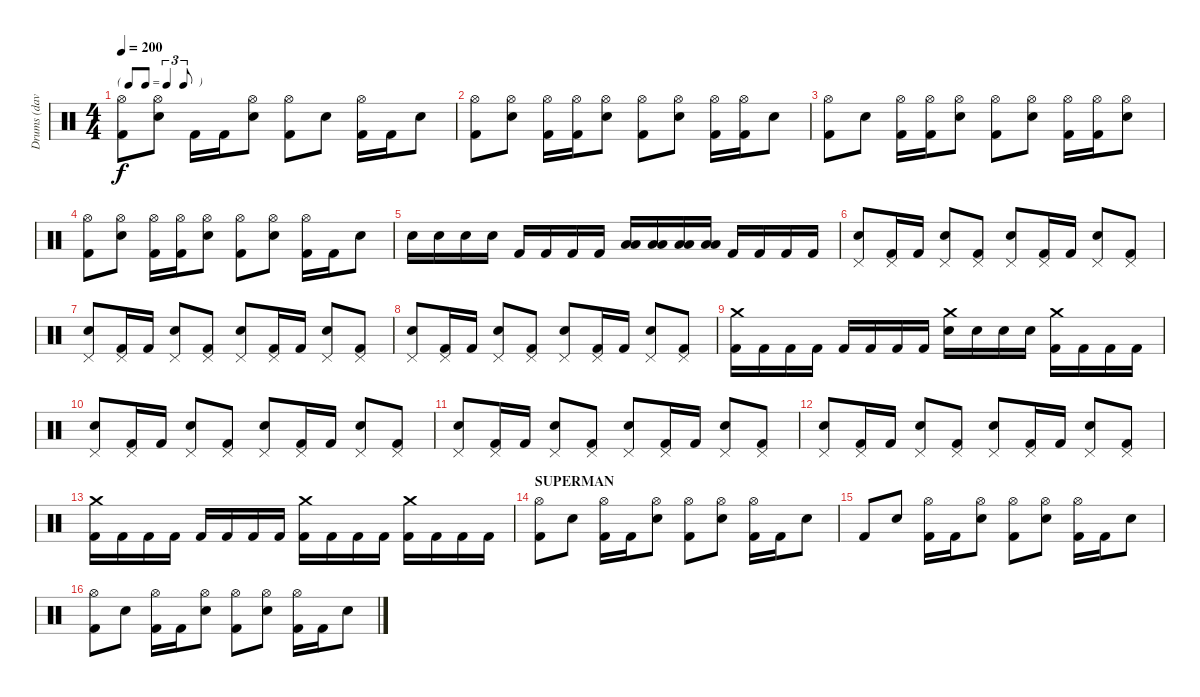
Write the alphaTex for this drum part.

\track ("Drums (dave)" "Drums (dav") {instrument percussion}
\staff {score}
\articulation defaults
\ts (4 4)
\tf triplet8th
\tempo 200
\clef neutral
\ks c
("Hi-Hat (open)" "Kick (hit) 2").8{dy f} ("Hi-Hat (open)" "Snare (hit) 2").8 "Kick (hit) 2".16 "Kick (hit) 2".16 ("Hi-Hat (open)" "Snare (hit) 2").8 ("Hi-Hat (open)" "Kick (hit) 2").8 "Snare (hit) 2".8 ("Hi-Hat (open)" "Kick (hit) 2").16 "Kick (hit) 2".16 "Snare (hit) 2".8 |
("Hi-Hat (open)" "Kick (hit) 2").8 ("Hi-Hat (open)" "Snare (hit) 2").8 ("Hi-Hat (open)" "Kick (hit) 2").16 ("Hi-Hat (open)" "Kick (hit) 2").16 ("Hi-Hat (open)" "Snare (hit) 2").8 ("Hi-Hat (open)" "Kick (hit) 2").8 ("Hi-Hat (open)" "Snare (hit) 2").8 ("Hi-Hat (open)" "Kick (hit) 2").16 ("Hi-Hat (open)" "Kick (hit) 2").16 "Snare (hit) 2".8 |
("Hi-Hat (open)" "Kick (hit) 2").8 "Snare (hit) 2".8 ("Hi-Hat (open)" "Kick (hit) 2").16 ("Hi-Hat (open)" "Kick (hit) 2").16 ("Hi-Hat (open)" "Snare (hit) 2").8 ("Hi-Hat (open)" "Kick (hit) 2").8 ("Hi-Hat (open)" "Snare (hit) 2").8 ("Hi-Hat (open)" "Kick (hit) 2").16 ("Hi-Hat (open)" "Kick (hit) 2").16 ("Hi-Hat (open)" "Snare (hit) 2").8 |
("Hi-Hat (open)" "Kick (hit) 2").8 ("Hi-Hat (open)" "Snare (hit) 2").8 ("Hi-Hat (open)" "Kick (hit) 2").16 ("Hi-Hat (open)" "Kick (hit) 2").16 ("Hi-Hat (open)" "Snare (hit) 2").8 ("Hi-Hat (open)" "Kick (hit) 2").8 ("Hi-Hat (open)" "Snare (hit) 2").8 ("Hi-Hat (open)" "Kick (hit) 2").16 "Kick (hit) 2".16 "Snare (hit) 2".8 |
"Snare (hit) 2".16 "Snare (hit) 2".16 "Snare (hit) 2".16 "Snare (hit) 2".16 "Kick (hit) 2".16 "Kick (hit) 2".16 "Kick (hit) 2".16 "Kick (hit) 2".16 ("Low Floor Tom (hit)" "Low Floor Tom (hit)").16 ("Low Floor Tom (hit)" "Low Floor Tom (hit)").16 ("Low Floor Tom (hit)" "Low Floor Tom (hit)").16 ("Low Floor Tom (hit)" "Low Floor Tom (hit)").16 "Kick (hit) 2".16 "Kick (hit) 2".16 "Kick (hit) 2".16 "Kick (hit) 2".16 |
("Pedal Hi-Hat (hit)" "Snare (hit) 2").8 ("Pedal Hi-Hat (hit)" "Kick (hit) 2").16 "Kick (hit) 2".16 ("Pedal Hi-Hat (hit)" "Snare (hit) 2").8 ("Pedal Hi-Hat (hit)" "Kick (hit) 2").8 ("Pedal Hi-Hat (hit)" "Snare (hit) 2").8 ("Pedal Hi-Hat (hit)" "Kick (hit) 2").16 "Kick (hit) 2".16 ("Pedal Hi-Hat (hit)" "Snare (hit) 2").8 ("Pedal Hi-Hat (hit)" "Kick (hit) 2").8 |
("Pedal Hi-Hat (hit)" "Snare (hit) 2").8 ("Pedal Hi-Hat (hit)" "Kick (hit) 2").16 "Kick (hit) 2".16 ("Pedal Hi-Hat (hit)" "Snare (hit) 2").8 ("Pedal Hi-Hat (hit)" "Kick (hit) 2").8 ("Pedal Hi-Hat (hit)" "Snare (hit) 2").8 ("Pedal Hi-Hat (hit)" "Kick (hit) 2").16 "Kick (hit) 2".16 ("Pedal Hi-Hat (hit)" "Snare (hit) 2").8 ("Pedal Hi-Hat (hit)" "Kick (hit) 2").8 |
("Pedal Hi-Hat (hit)" "Snare (hit) 2").8 ("Pedal Hi-Hat (hit)" "Kick (hit) 2").16 "Kick (hit) 2".16 ("Pedal Hi-Hat (hit)" "Snare (hit) 2").8 ("Pedal Hi-Hat (hit)" "Kick (hit) 2").8 ("Pedal Hi-Hat (hit)" "Snare (hit) 2").8 ("Pedal Hi-Hat (hit)" "Kick (hit) 2").16 "Kick (hit) 2".16 ("Pedal Hi-Hat (hit)" "Snare (hit) 2").8 ("Pedal Hi-Hat (hit)" "Kick (hit) 2").8 |
("Crash medium (hit)" "Kick (hit) 2").16 "Kick (hit) 2".16 "Kick (hit) 2".16 "Kick (hit) 2".16 "Kick (hit) 2".16 "Kick (hit) 2".16 "Kick (hit) 2".16 "Kick (hit) 2".16 ("Crash medium (hit)" "Snare (hit) 2").16 "Snare (hit) 2".16 "Snare (hit) 2".16 "Snare (hit) 2".16 ("Crash medium (hit)" "Kick (hit) 2").16 "Kick (hit) 2".16 "Kick (hit) 2".16 "Kick (hit) 2".16 |
("Pedal Hi-Hat (hit)" "Snare (hit) 2").8 ("Pedal Hi-Hat (hit)" "Kick (hit) 2").16 "Kick (hit) 2".16 ("Pedal Hi-Hat (hit)" "Snare (hit) 2").8 ("Pedal Hi-Hat (hit)" "Kick (hit) 2").8 ("Pedal Hi-Hat (hit)" "Snare (hit) 2").8 ("Pedal Hi-Hat (hit)" "Kick (hit) 2").16 "Kick (hit) 2".16 ("Pedal Hi-Hat (hit)" "Snare (hit) 2").8 ("Pedal Hi-Hat (hit)" "Kick (hit) 2").8 |
("Pedal Hi-Hat (hit)" "Snare (hit) 2").8 ("Pedal Hi-Hat (hit)" "Kick (hit) 2").16 "Kick (hit) 2".16 ("Pedal Hi-Hat (hit)" "Snare (hit) 2").8 ("Pedal Hi-Hat (hit)" "Kick (hit) 2").8 ("Pedal Hi-Hat (hit)" "Snare (hit) 2").8 ("Pedal Hi-Hat (hit)" "Kick (hit) 2").16 "Kick (hit) 2".16 ("Pedal Hi-Hat (hit)" "Snare (hit) 2").8 ("Pedal Hi-Hat (hit)" "Kick (hit) 2").8 |
("Pedal Hi-Hat (hit)" "Snare (hit) 2").8 ("Pedal Hi-Hat (hit)" "Kick (hit) 2").16 "Kick (hit) 2".16 ("Pedal Hi-Hat (hit)" "Snare (hit) 2").8 ("Pedal Hi-Hat (hit)" "Kick (hit) 2").8 ("Pedal Hi-Hat (hit)" "Snare (hit) 2").8 ("Pedal Hi-Hat (hit)" "Kick (hit) 2").16 "Kick (hit) 2".16 ("Pedal Hi-Hat (hit)" "Snare (hit) 2").8 ("Pedal Hi-Hat (hit)" "Kick (hit) 2").8 |
("Crash medium (hit)" "Kick (hit) 2").16 "Kick (hit) 2".16 "Kick (hit) 2".16 "Kick (hit) 2".16 "Kick (hit) 2".16 "Kick (hit) 2".16 "Kick (hit) 2".16 "Kick (hit) 2".16 ("Crash medium (hit)" "Kick (hit) 2").16 "Kick (hit) 2".16 "Kick (hit) 2".16 "Kick (hit) 2".16 ("Crash medium (hit)" "Kick (hit) 2").16 "Kick (hit) 2".16 "Kick (hit) 2".16 "Kick (hit) 2".16 |
\section ("" "SUPERMAN")
("Hi-Hat (open)" "Kick (hit) 2").8 "Snare (hit) 2".8 ("Hi-Hat (open)" "Kick (hit) 2").16 "Kick (hit) 2".16 ("Hi-Hat (open)" "Snare (hit) 2").8 ("Hi-Hat (open)" "Kick (hit) 2").8 ("Hi-Hat (open)" "Snare (hit) 2").8 ("Hi-Hat (open)" "Kick (hit) 2").16 "Kick (hit) 2".16 "Snare (hit) 2".8 |
"Kick (hit) 2".8 "Snare (hit) 2".8 ("Hi-Hat (open)" "Kick (hit) 2").16 "Kick (hit) 2".16 ("Hi-Hat (open)" "Snare (hit) 2").8 ("Hi-Hat (open)" "Kick (hit) 2").8 ("Hi-Hat (open)" "Snare (hit) 2").8 ("Hi-Hat (open)" "Kick (hit) 2").16 "Kick (hit) 2".16 "Snare (hit) 2".8 |
("Hi-Hat (open)" "Kick (hit) 2").8 "Snare (hit) 2".8 ("Hi-Hat (open)" "Kick (hit) 2").16 "Kick (hit) 2".16 ("Hi-Hat (open)" "Snare (hit) 2").8 ("Hi-Hat (open)" "Kick (hit) 2").8 ("Hi-Hat (open)" "Snare (hit) 2").8 ("Hi-Hat (open)" "Kick (hit) 2").16 "Kick (hit) 2".16 "Snare (hit) 2".8
